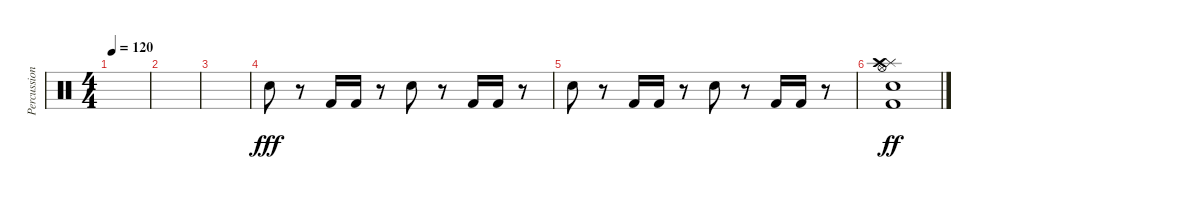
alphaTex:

\track ("Percussion" "Percussion") {instrument percussion}
\staff {score}
\articulation defaults
\ts (4 4)
\tempo 120
\clef neutral
\ks c
|
|
|
"Snare (hit) 2".8{dy fff} r.8 "Kick (hit) 2".16 "Kick (hit) 2".16 r.8 "Snare (hit) 2".8 r.8 "Kick (hit) 2".16 "Kick (hit) 2".16 r.8 |
"Snare (hit) 2".8 r.8 "Kick (hit) 2".16 "Kick (hit) 2".16 r.8 "Snare (hit) 2".8 r.8 "Kick (hit) 2".16 "Kick (hit) 2".16 r.8 |
("Hi-Hat (open)" "Splash (hit)" "Crash high (hit)" "Snare (hit) 2" "Kick (hit) 2").1{dy ff}
